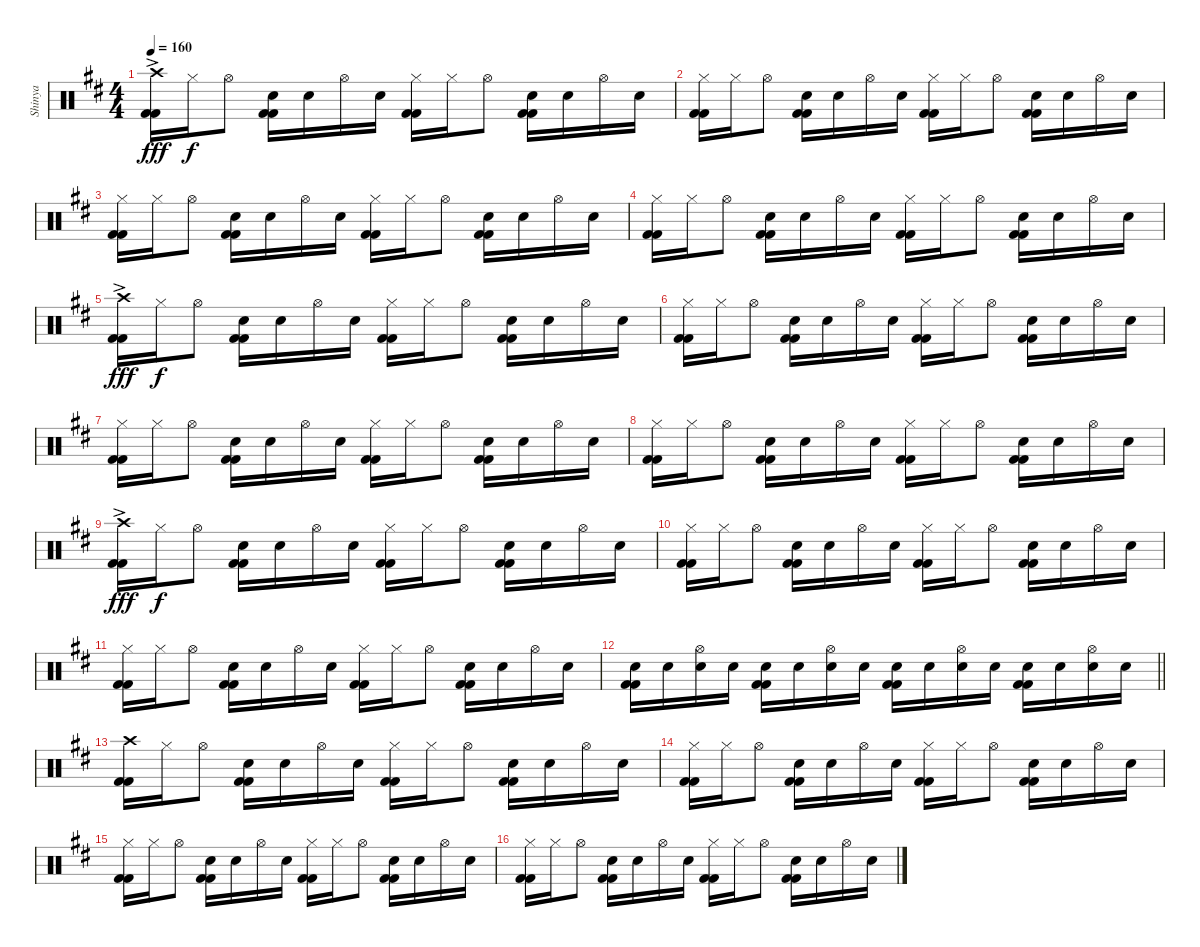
\track ("Shinya " "Shinya ") {instrument percussion}
\staff {score}
\articulation defaults
\ts (4 4)
\tempo 160
\clef neutral
\ks d
("Crash high (hit)"{ac} "Kick (hit) 2" "Kick (hit) 2").16{dy fff} "Hi-Hat (closed)".16{dy f} "Hi-Hat (open)".8 ("Snare (hit) 2" "Kick (hit) 2" "Kick (hit) 2").16 "Snare (hit) 2".16 "Hi-Hat (open)".16 "Snare (hit) 2".16 ("Hi-Hat (closed)" "Kick (hit) 2" "Kick (hit) 2").16 "Hi-Hat (closed)".16 "Hi-Hat (open)".8 ("Snare (hit) 2" "Kick (hit) 2" "Kick (hit) 2").16 "Snare (hit) 2".16 "Hi-Hat (open)".16 "Snare (hit) 2".16 |
("Hi-Hat (closed)" "Kick (hit) 2" "Kick (hit) 2").16 "Hi-Hat (closed)".16 "Hi-Hat (open)".8 ("Snare (hit) 2" "Kick (hit) 2" "Kick (hit) 2").16 "Snare (hit) 2".16 "Hi-Hat (open)".16 "Snare (hit) 2".16 ("Hi-Hat (closed)" "Kick (hit) 2" "Kick (hit) 2").16 "Hi-Hat (closed)".16 "Hi-Hat (open)".8 ("Snare (hit) 2" "Kick (hit) 2" "Kick (hit) 2").16 "Snare (hit) 2".16 "Hi-Hat (open)".16 "Snare (hit) 2".16 |
("Hi-Hat (closed)" "Kick (hit) 2" "Kick (hit) 2").16 "Hi-Hat (closed)".16 "Hi-Hat (open)".8 ("Snare (hit) 2" "Kick (hit) 2" "Kick (hit) 2").16 "Snare (hit) 2".16 "Hi-Hat (open)".16 "Snare (hit) 2".16 ("Hi-Hat (closed)" "Kick (hit) 2" "Kick (hit) 2").16 "Hi-Hat (closed)".16 "Hi-Hat (open)".8 ("Snare (hit) 2" "Kick (hit) 2" "Kick (hit) 2").16 "Snare (hit) 2".16 "Hi-Hat (open)".16 "Snare (hit) 2".16 |
("Hi-Hat (closed)" "Kick (hit) 2" "Kick (hit) 2").16 "Hi-Hat (closed)".16 "Hi-Hat (open)".8 ("Snare (hit) 2" "Kick (hit) 2" "Kick (hit) 2").16 "Snare (hit) 2".16 "Hi-Hat (open)".16 "Snare (hit) 2".16 ("Hi-Hat (closed)" "Kick (hit) 2" "Kick (hit) 2").16 "Hi-Hat (closed)".16 "Hi-Hat (open)".8 ("Snare (hit) 2" "Kick (hit) 2" "Kick (hit) 2").16 "Snare (hit) 2".16 "Hi-Hat (open)".16 "Snare (hit) 2".16 |
("Crash high (hit)"{ac} "Kick (hit) 2" "Kick (hit) 2").16{dy fff} "Hi-Hat (closed)".16{dy f} "Hi-Hat (open)".8 ("Snare (hit) 2" "Kick (hit) 2" "Kick (hit) 2").16 "Snare (hit) 2".16 "Hi-Hat (open)".16 "Snare (hit) 2".16 ("Hi-Hat (closed)" "Kick (hit) 2" "Kick (hit) 2").16 "Hi-Hat (closed)".16 "Hi-Hat (open)".8 ("Snare (hit) 2" "Kick (hit) 2" "Kick (hit) 2").16 "Snare (hit) 2".16 "Hi-Hat (open)".16 "Snare (hit) 2".16 |
("Hi-Hat (closed)" "Kick (hit) 2" "Kick (hit) 2").16 "Hi-Hat (closed)".16 "Hi-Hat (open)".8 ("Snare (hit) 2" "Kick (hit) 2" "Kick (hit) 2").16 "Snare (hit) 2".16 "Hi-Hat (open)".16 "Snare (hit) 2".16 ("Hi-Hat (closed)" "Kick (hit) 2" "Kick (hit) 2").16 "Hi-Hat (closed)".16 "Hi-Hat (open)".8 ("Snare (hit) 2" "Kick (hit) 2" "Kick (hit) 2").16 "Snare (hit) 2".16 "Hi-Hat (open)".16 "Snare (hit) 2".16 |
("Hi-Hat (closed)" "Kick (hit) 2" "Kick (hit) 2").16 "Hi-Hat (closed)".16 "Hi-Hat (open)".8 ("Snare (hit) 2" "Kick (hit) 2" "Kick (hit) 2").16 "Snare (hit) 2".16 "Hi-Hat (open)".16 "Snare (hit) 2".16 ("Hi-Hat (closed)" "Kick (hit) 2" "Kick (hit) 2").16 "Hi-Hat (closed)".16 "Hi-Hat (open)".8 ("Snare (hit) 2" "Kick (hit) 2" "Kick (hit) 2").16 "Snare (hit) 2".16 "Hi-Hat (open)".16 "Snare (hit) 2".16 |
("Hi-Hat (closed)" "Kick (hit) 2" "Kick (hit) 2").16 "Hi-Hat (closed)".16 "Hi-Hat (open)".8 ("Snare (hit) 2" "Kick (hit) 2" "Kick (hit) 2").16 "Snare (hit) 2".16 "Hi-Hat (open)".16 "Snare (hit) 2".16 ("Hi-Hat (closed)" "Kick (hit) 2" "Kick (hit) 2").16 "Hi-Hat (closed)".16 "Hi-Hat (open)".8 ("Snare (hit) 2" "Kick (hit) 2" "Kick (hit) 2").16 "Snare (hit) 2".16 "Hi-Hat (open)".16 "Snare (hit) 2".16 |
("Crash high (hit)"{ac} "Kick (hit) 2" "Kick (hit) 2").16{dy fff} "Hi-Hat (closed)".16{dy f} "Hi-Hat (open)".8 ("Snare (hit) 2" "Kick (hit) 2" "Kick (hit) 2").16 "Snare (hit) 2".16 "Hi-Hat (open)".16 "Snare (hit) 2".16 ("Hi-Hat (closed)" "Kick (hit) 2" "Kick (hit) 2").16 "Hi-Hat (closed)".16 "Hi-Hat (open)".8 ("Snare (hit) 2" "Kick (hit) 2" "Kick (hit) 2").16 "Snare (hit) 2".16 "Hi-Hat (open)".16 "Snare (hit) 2".16 |
("Hi-Hat (closed)" "Kick (hit) 2" "Kick (hit) 2").16 "Hi-Hat (closed)".16 "Hi-Hat (open)".8 ("Snare (hit) 2" "Kick (hit) 2" "Kick (hit) 2").16 "Snare (hit) 2".16 "Hi-Hat (open)".16 "Snare (hit) 2".16 ("Hi-Hat (closed)" "Kick (hit) 2" "Kick (hit) 2").16 "Hi-Hat (closed)".16 "Hi-Hat (open)".8 ("Snare (hit) 2" "Kick (hit) 2" "Kick (hit) 2").16 "Snare (hit) 2".16 "Hi-Hat (open)".16 "Snare (hit) 2".16 |
("Hi-Hat (closed)" "Kick (hit) 2" "Kick (hit) 2").16 "Hi-Hat (closed)".16 "Hi-Hat (open)".8 ("Snare (hit) 2" "Kick (hit) 2" "Kick (hit) 2").16 "Snare (hit) 2".16 "Hi-Hat (open)".16 "Snare (hit) 2".16 ("Hi-Hat (closed)" "Kick (hit) 2" "Kick (hit) 2").16 "Hi-Hat (closed)".16 "Hi-Hat (open)".8 ("Snare (hit) 2" "Kick (hit) 2" "Kick (hit) 2").16 "Snare (hit) 2".16 "Hi-Hat (open)".16 "Snare (hit) 2".16 |
\barLineRight lightlight
("Snare (hit) 2" "Kick (hit) 2" "Kick (hit) 2").16 "Snare (hit) 2".16 ("Hi-Hat (open)" "Snare (hit) 2").16 "Snare (hit) 2".16 ("Snare (hit) 2" "Kick (hit) 2" "Kick (hit) 2").16 "Snare (hit) 2".16 ("Hi-Hat (open)" "Snare (hit) 2").16 "Snare (hit) 2".16 ("Snare (hit) 2" "Kick (hit) 2" "Kick (hit) 2").16 "Snare (hit) 2".16 ("Hi-Hat (open)" "Snare (hit) 2").16 "Snare (hit) 2".16 ("Snare (hit) 2" "Kick (hit) 2" "Kick (hit) 2").16 "Snare (hit) 2".16 ("Hi-Hat (open)" "Snare (hit) 2").16 "Snare (hit) 2".16 |
("Crash high (hit)" "Kick (hit) 2" "Kick (hit) 2").16 "Hi-Hat (closed)".16 "Hi-Hat (open)".8 ("Snare (hit) 2" "Kick (hit) 2" "Kick (hit) 2").16 "Snare (hit) 2".16 "Hi-Hat (open)".16 "Snare (hit) 2".16 ("Hi-Hat (closed)" "Kick (hit) 2" "Kick (hit) 2").16 "Hi-Hat (closed)".16 "Hi-Hat (open)".8 ("Snare (hit) 2" "Kick (hit) 2" "Kick (hit) 2").16 "Snare (hit) 2".16 "Hi-Hat (open)".16 "Snare (hit) 2".16 |
("Hi-Hat (closed)" "Kick (hit) 2" "Kick (hit) 2").16 "Hi-Hat (closed)".16 "Hi-Hat (open)".8 ("Snare (hit) 2" "Kick (hit) 2" "Kick (hit) 2").16 "Snare (hit) 2".16 "Hi-Hat (open)".16 "Snare (hit) 2".16 ("Hi-Hat (closed)" "Kick (hit) 2" "Kick (hit) 2").16 "Hi-Hat (closed)".16 "Hi-Hat (open)".8 ("Snare (hit) 2" "Kick (hit) 2" "Kick (hit) 2").16 "Snare (hit) 2".16 "Hi-Hat (open)".16 "Snare (hit) 2".16 |
("Hi-Hat (closed)" "Kick (hit) 2" "Kick (hit) 2").16 "Hi-Hat (closed)".16 "Hi-Hat (open)".8 ("Snare (hit) 2" "Kick (hit) 2" "Kick (hit) 2").16 "Snare (hit) 2".16 "Hi-Hat (open)".16 "Snare (hit) 2".16 ("Hi-Hat (closed)" "Kick (hit) 2" "Kick (hit) 2").16 "Hi-Hat (closed)".16 "Hi-Hat (open)".8 ("Snare (hit) 2" "Kick (hit) 2" "Kick (hit) 2").16 "Snare (hit) 2".16 "Hi-Hat (open)".16 "Snare (hit) 2".16 |
("Hi-Hat (closed)" "Kick (hit) 2" "Kick (hit) 2").16 "Hi-Hat (closed)".16 "Hi-Hat (open)".8 ("Snare (hit) 2" "Kick (hit) 2" "Kick (hit) 2").16 "Snare (hit) 2".16 "Hi-Hat (open)".16 "Snare (hit) 2".16 ("Hi-Hat (closed)" "Kick (hit) 2" "Kick (hit) 2").16 "Hi-Hat (closed)".16 "Hi-Hat (open)".8 ("Snare (hit) 2" "Kick (hit) 2" "Kick (hit) 2").16 "Snare (hit) 2".16 "Hi-Hat (open)".16 "Snare (hit) 2".16
